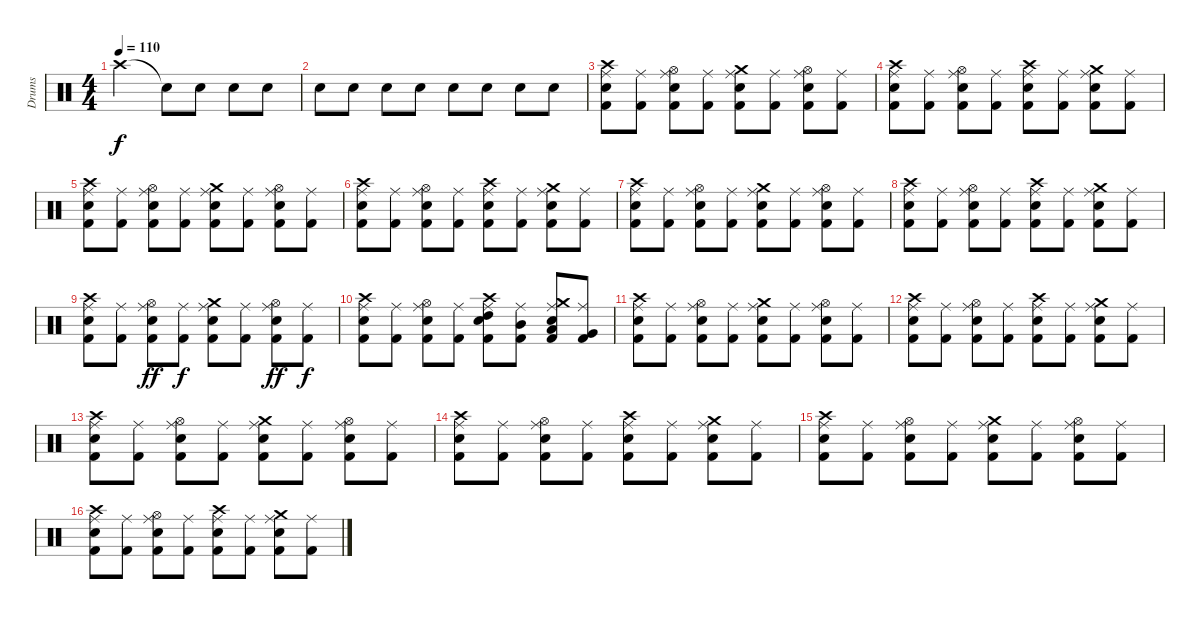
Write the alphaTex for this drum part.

\track ("Drums" "Drums") {instrument percussion}
\staff {score}
\articulation defaults
\ts (4 4)
\tempo 110
\clef neutral
\ks c "Crash high (hit)".2{dy f} "Snare (hit)"{t}.8 "Snare (hit) 2".8{volume 5} "Snare (hit) 2".8{volume 13} "Snare (hit) 2".8
|
"Snare (hit) 2".8 "Snare (hit) 2".8 "Snare (hit) 2".8 "Snare (hit) 2".8 "Snare (hit) 2".8 "Snare (hit) 2".8 "Snare (hit) 2".8 "Snare (hit) 2".8 |
("Kick (hit) 2" "Crash high (hit)" "Ride (middle)" "Snare (hit) 2").8 ("Kick (hit) 2" "Ride (middle)").8 ("Kick (hit) 2" "Hi-Hat (open)" "Ride (middle)" "Snare (hit) 2").8 ("Kick (hit) 2" "Ride (middle)").8 ("Kick (hit) 2" "Crash medium (hit)" "Ride (middle)" "Snare (hit) 2").8 ("Kick (hit) 2" "Ride (middle)").8 ("Kick (hit) 2" "Hi-Hat (open)" "Ride (middle)" "Snare (hit) 2").8 ("Kick (hit) 2" "Ride (middle)").8 |
("Kick (hit) 2" "Crash high (hit)" "Ride (middle)" "Snare (hit) 2").8 ("Kick (hit) 2" "Ride (middle)").8 ("Kick (hit) 2" "Hi-Hat (open)" "Ride (middle)" "Snare (hit) 2").8 ("Kick (hit) 2" "Ride (middle)").8 ("Kick (hit) 2" "Crash high (hit)" "Ride (middle)" "Snare (hit) 2").8 ("Kick (hit) 2" "Ride (middle)").8 ("Kick (hit) 2" "Crash medium (hit)" "Ride (middle)" "Snare (hit) 2").8 ("Kick (hit) 2" "Ride (middle)").8 |
("Kick (hit) 2" "Crash high (hit)" "Ride (middle)" "Snare (hit) 2").8 ("Kick (hit) 2" "Ride (middle)").8 ("Kick (hit) 2" "Hi-Hat (open)" "Ride (middle)" "Snare (hit) 2").8 ("Kick (hit) 2" "Ride (middle)").8 ("Kick (hit) 2" "Crash medium (hit)" "Ride (middle)" "Snare (hit) 2").8 ("Kick (hit) 2" "Ride (middle)").8 ("Kick (hit) 2" "Hi-Hat (open)" "Ride (middle)" "Snare (hit) 2").8 ("Kick (hit) 2" "Ride (middle)").8 |
("Kick (hit) 2" "Crash high (hit)" "Ride (middle)" "Snare (hit) 2").8 ("Kick (hit) 2" "Ride (middle)").8 ("Kick (hit) 2" "Hi-Hat (open)" "Ride (middle)" "Snare (hit) 2").8 ("Kick (hit) 2" "Ride (middle)").8 ("Kick (hit) 2" "Crash high (hit)" "Ride (middle)" "Snare (hit) 2").8 ("Kick (hit) 2" "Ride (middle)").8 ("Kick (hit) 2" "Crash medium (hit)" "Ride (middle)" "Snare (hit) 2").8 ("Kick (hit) 2" "Ride (middle)").8 |
("Kick (hit) 2" "Crash high (hit)" "Ride (middle)" "Snare (hit) 2").8 ("Kick (hit) 2" "Ride (middle)").8 ("Kick (hit) 2" "Hi-Hat (open)" "Ride (middle)" "Snare (hit) 2").8 ("Kick (hit) 2" "Ride (middle)").8 ("Kick (hit) 2" "Crash medium (hit)" "Ride (middle)" "Snare (hit) 2").8 ("Kick (hit) 2" "Ride (middle)").8 ("Kick (hit) 2" "Hi-Hat (open)" "Ride (middle)" "Snare (hit) 2").8 ("Kick (hit) 2" "Ride (middle)").8 |
("Kick (hit) 2" "Crash high (hit)" "Ride (middle)" "Snare (hit) 2").8 ("Kick (hit) 2" "Ride (middle)").8 ("Kick (hit) 2" "Hi-Hat (open)" "Ride (middle)" "Snare (hit) 2").8 ("Kick (hit) 2" "Ride (middle)").8 ("Kick (hit) 2" "Crash high (hit)" "Ride (middle)" "Snare (hit) 2").8 ("Kick (hit) 2" "Ride (middle)").8 ("Kick (hit) 2" "Crash medium (hit)" "Ride (middle)" "Snare (hit) 2").8 ("Kick (hit) 2" "Ride (middle)").8 |
("Kick (hit) 2" "Crash high (hit)" "Ride (middle)" "Snare (hit) 2").8 ("Kick (hit) 2" "Ride (middle)").8 ("Kick (hit) 2" "Hi-Hat (open)" "Ride (middle)" "Snare (hit) 2").8{dy ff} ("Kick (hit) 2" "Ride (middle)").8{dy f} ("Kick (hit) 2" "Crash medium (hit)" "Ride (middle)" "Snare (hit) 2").8 ("Kick (hit) 2" "Ride (middle)").8 ("Kick (hit) 2" "Hi-Hat (open)" "Ride (middle)" "Snare (hit) 2").8{dy ff} ("Kick (hit) 2" "Ride (middle)").8{dy f} |
("Kick (hit) 2" "Crash high (hit)" "Ride (middle)" "Snare (hit) 2").8 ("Kick (hit) 2" "Ride (middle)").8 ("Kick (hit) 2" "Hi-Hat (open)" "Ride (middle)" "Snare (hit) 2").8 ("Kick (hit) 2" "Ride (middle)").8 ("Kick (hit) 2" "Crash high (hit)" "Ride (middle)" "High Tom (hit)" "Snare (hit) 2").8 ("Kick (hit) 2" "Ride (middle)" "Mid Tom (hit)").8 ("Kick (hit) 2" "Crash medium (hit)" "Ride (middle)" "Low Tom (hit)" "Snare (hit) 2").8 ("Kick (hit) 2" "Ride (middle)" "Very Low Tom (hit)").8 |
("Kick (hit) 2" "Crash high (hit)" "Ride (middle)" "Snare (hit) 2").8 ("Kick (hit) 2" "Ride (middle)").8 ("Kick (hit) 2" "Hi-Hat (open)" "Ride (middle)" "Snare (hit) 2").8 ("Kick (hit) 2" "Ride (middle)").8 ("Kick (hit) 2" "Crash medium (hit)" "Ride (middle)" "Snare (hit) 2").8 ("Kick (hit) 2" "Ride (middle)").8 ("Kick (hit) 2" "Hi-Hat (open)" "Ride (middle)" "Snare (hit) 2").8 ("Kick (hit) 2" "Ride (middle)").8 |
("Kick (hit) 2" "Crash high (hit)" "Ride (middle)" "Snare (hit) 2").8 ("Kick (hit) 2" "Ride (middle)").8 ("Kick (hit) 2" "Hi-Hat (open)" "Ride (middle)" "Snare (hit) 2").8 ("Kick (hit) 2" "Ride (middle)").8 ("Kick (hit) 2" "Crash high (hit)" "Ride (middle)" "Snare (hit) 2").8 ("Kick (hit) 2" "Ride (middle)").8 ("Kick (hit) 2" "Crash medium (hit)" "Ride (middle)" "Snare (hit) 2").8 ("Kick (hit) 2" "Ride (middle)").8 |
("Kick (hit) 2" "Crash high (hit)" "Ride (middle)" "Snare (hit) 2").8 ("Kick (hit) 2" "Ride (middle)").8 ("Kick (hit) 2" "Hi-Hat (open)" "Ride (middle)" "Snare (hit) 2").8 ("Kick (hit) 2" "Ride (middle)").8 ("Kick (hit) 2" "Crash medium (hit)" "Ride (middle)" "Snare (hit) 2").8 ("Kick (hit) 2" "Ride (middle)").8 ("Kick (hit) 2" "Hi-Hat (open)" "Ride (middle)" "Snare (hit) 2").8 ("Kick (hit) 2" "Ride (middle)").8 |
("Kick (hit) 2" "Crash high (hit)" "Ride (middle)" "Snare (hit) 2").8 ("Kick (hit) 2" "Ride (middle)").8 ("Kick (hit) 2" "Hi-Hat (open)" "Ride (middle)" "Snare (hit) 2").8 ("Kick (hit) 2" "Ride (middle)").8 ("Kick (hit) 2" "Crash high (hit)" "Ride (middle)" "Snare (hit) 2").8 ("Kick (hit) 2" "Ride (middle)").8 ("Kick (hit) 2" "Crash medium (hit)" "Ride (middle)" "Snare (hit) 2").8 ("Kick (hit) 2" "Ride (middle)").8 |
("Kick (hit) 2" "Crash high (hit)" "Ride (middle)" "Snare (hit) 2").8 ("Kick (hit) 2" "Ride (middle)").8 ("Kick (hit) 2" "Hi-Hat (open)" "Ride (middle)" "Snare (hit) 2").8 ("Kick (hit) 2" "Ride (middle)").8 ("Kick (hit) 2" "Crash medium (hit)" "Ride (middle)" "Snare (hit) 2").8 ("Kick (hit) 2" "Ride (middle)").8 ("Kick (hit) 2" "Hi-Hat (open)" "Ride (middle)" "Snare (hit) 2").8 ("Kick (hit) 2" "Ride (middle)").8 |
("Kick (hit) 2" "Crash high (hit)" "Ride (middle)" "Snare (hit) 2").8 ("Kick (hit) 2" "Ride (middle)").8 ("Kick (hit) 2" "Hi-Hat (open)" "Ride (middle)" "Snare (hit) 2").8 ("Kick (hit) 2" "Ride (middle)").8 ("Kick (hit) 2" "Crash high (hit)" "Ride (middle)" "Snare (hit) 2").8 ("Kick (hit) 2" "Ride (middle)").8 ("Kick (hit) 2" "Crash medium (hit)" "Ride (middle)" "Snare (hit) 2").8 ("Kick (hit) 2" "Ride (middle)").8
